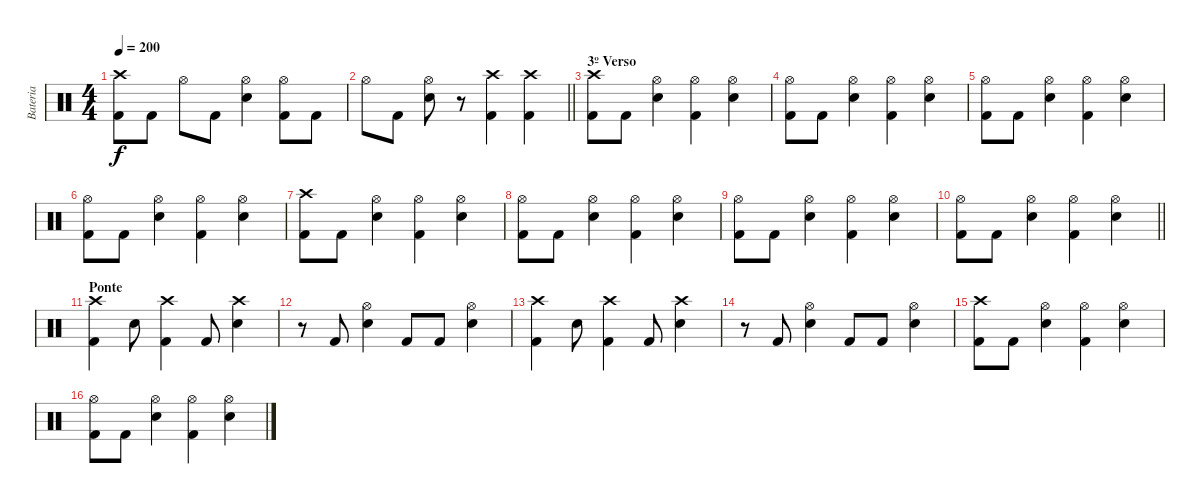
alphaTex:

\track ("Bateria" "Bateria") {instrument percussion}
\staff {score}
\articulation defaults
\ts (4 4)
\tempo 200
\clef neutral
\ks c
("Crash high (hit)" "Kick (hit) 2").8{dy f} "Kick (hit) 2".8 "Hi-Hat (open)".8 "Kick (hit) 2".8 ("Hi-Hat (open)" "Electric Snare (hit)").4 ("Hi-Hat (open)" "Kick (hit) 2").8 "Kick (hit) 2".8 |
\barLineRight lightlight "Hi-Hat (open)".8 "Kick (hit) 2".8
("Hi-Hat (open)" "Electric Snare (hit)").8 r.8 ("Crash high (hit)" "Kick (hit) 2").4 ("Crash high (hit)" "Kick (hit) 2").4 |
\section ("" "3º Verso")
("Crash high (hit)" "Kick (hit) 2").8 "Kick (hit) 2".8 ("Hi-Hat (open)" "Electric Snare (hit)").4 ("Hi-Hat (open)" "Kick (hit) 2").4 ("Hi-Hat (open)" "Electric Snare (hit)").4 |
("Hi-Hat (open)" "Kick (hit) 2").8 "Kick (hit) 2".8 ("Hi-Hat (open)" "Electric Snare (hit)").4 ("Hi-Hat (open)" "Kick (hit) 2").4 ("Hi-Hat (open)" "Electric Snare (hit)").4 |
("Hi-Hat (open)" "Kick (hit) 2").8 "Kick (hit) 2".8 ("Hi-Hat (open)" "Electric Snare (hit)").4 ("Hi-Hat (open)" "Kick (hit) 2").4 ("Hi-Hat (open)" "Electric Snare (hit)").4 |
("Hi-Hat (open)" "Kick (hit) 2").8 "Kick (hit) 2".8 ("Hi-Hat (open)" "Electric Snare (hit)").4 ("Hi-Hat (open)" "Kick (hit) 2").4 ("Hi-Hat (open)" "Electric Snare (hit)").4 |
("Crash high (hit)" "Kick (hit) 2").8 "Kick (hit) 2".8 ("Hi-Hat (open)" "Electric Snare (hit)").4 ("Hi-Hat (open)" "Kick (hit) 2").4 ("Hi-Hat (open)" "Electric Snare (hit)").4 |
("Hi-Hat (open)" "Kick (hit) 2").8 "Kick (hit) 2".8 ("Hi-Hat (open)" "Electric Snare (hit)").4 ("Hi-Hat (open)" "Kick (hit) 2").4 ("Hi-Hat (open)" "Electric Snare (hit)").4 |
("Hi-Hat (open)" "Kick (hit) 2").8 "Kick (hit) 2".8 ("Hi-Hat (open)" "Electric Snare (hit)").4 ("Hi-Hat (open)" "Kick (hit) 2").4 ("Hi-Hat (open)" "Electric Snare (hit)").4 |
\barLineRight lightlight
("Hi-Hat (open)" "Kick (hit) 2").8 "Kick (hit) 2".8 ("Hi-Hat (open)" "Electric Snare (hit)").4 ("Hi-Hat (open)" "Kick (hit) 2").4 ("Hi-Hat (open)" "Electric Snare (hit)").4 |
\section ("" "Ponte")
("Crash high (hit)" "Kick (hit) 2").4 "Electric Snare (hit)".8 ("Crash high (hit)" "Kick (hit) 2").4 "Kick (hit) 2".8 ("Crash high (hit)" "Electric Snare (hit)").4 |
r.8 "Kick (hit) 2".8 ("Hi-Hat (open)" "Electric Snare (hit)").4 "Kick (hit) 2".8 "Kick (hit) 2".8 ("Hi-Hat (open)" "Electric Snare (hit)").4 |
("Crash high (hit)" "Kick (hit) 2").4 "Electric Snare (hit)".8 ("Crash high (hit)" "Kick (hit) 2").4 "Kick (hit) 2".8 ("Crash high (hit)" "Electric Snare (hit)").4 |
r.8 "Kick (hit) 2".8 ("Hi-Hat (open)" "Electric Snare (hit)").4 "Kick (hit) 2".8 "Kick (hit) 2".8 ("Hi-Hat (open)" "Electric Snare (hit)").4 |
("Crash high (hit)" "Kick (hit) 2").8 "Kick (hit) 2".8 ("Hi-Hat (open)" "Electric Snare (hit)").4 ("Hi-Hat (open)" "Kick (hit) 2").4 ("Hi-Hat (open)" "Electric Snare (hit)").4 |
("Hi-Hat (open)" "Kick (hit) 2").8 "Kick (hit) 2".8 ("Hi-Hat (open)" "Electric Snare (hit)").4 ("Hi-Hat (open)" "Kick (hit) 2").4 ("Hi-Hat (open)" "Electric Snare (hit)").4
